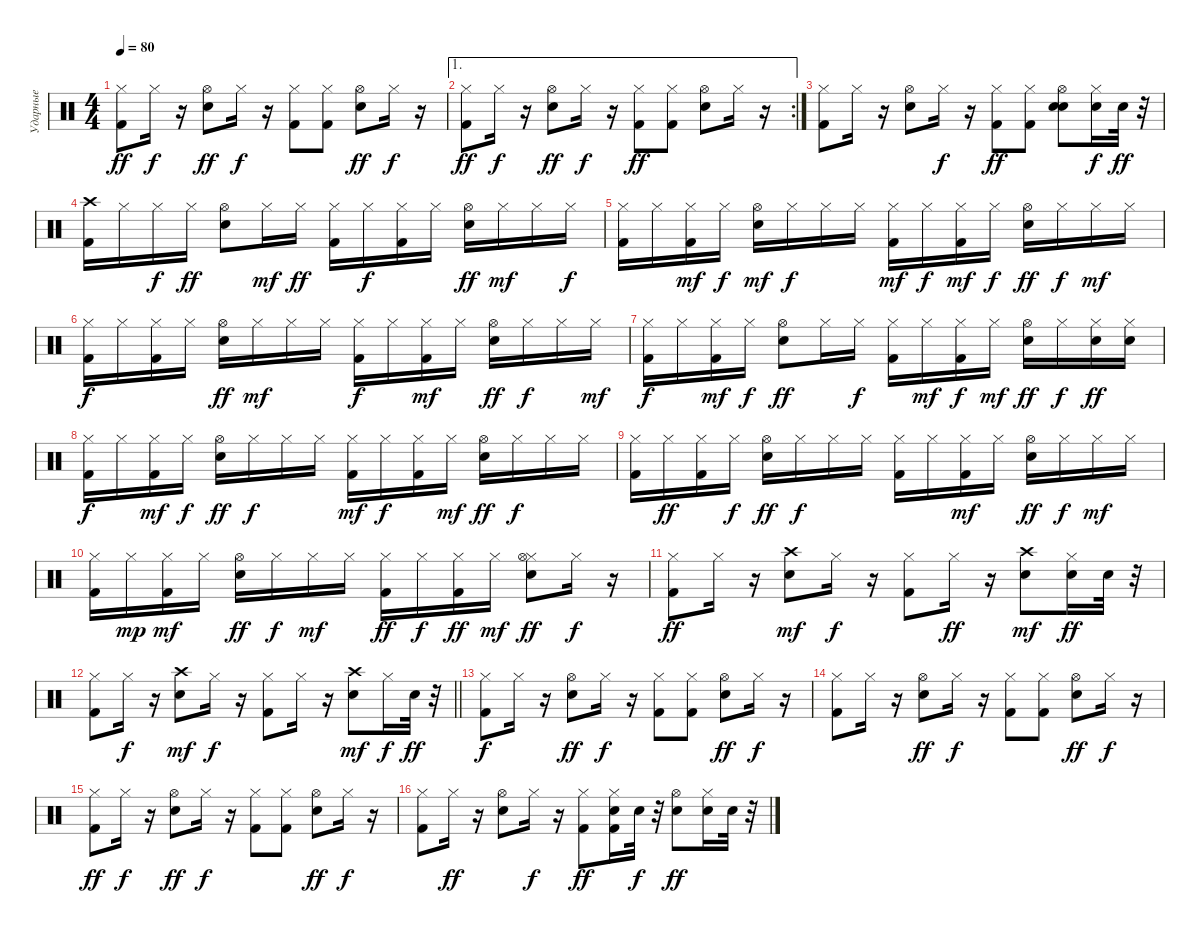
\track ("Ударные" "Ударные") {instrument percussion}
\staff {score}
\articulation defaults
\ts (4 4)
\tempo 80
\clef neutral
\ks c
("Kick (hit) 2" "Hi-Hat (closed)").8{dy ff} "Hi-Hat (closed)".16{dy f} r.16 ("Electric Snare (hit)" "Hi-Hat (open)").8{dy ff} "Hi-Hat (closed)".16{dy f} r.16 ("Kick (hit) 2" "Hi-Hat (closed)").8 ("Kick (hit) 2" "Hi-Hat (closed)").8 ("Electric Snare (hit)" "Hi-Hat (open)").8{dy ff} "Hi-Hat (closed)".16{dy f} r.16 |
\ae 1
\rc 2
("Kick (hit) 2" "Hi-Hat (closed)").8{dy ff} "Hi-Hat (closed)".16{dy f} r.16 ("Electric Snare (hit)" "Hi-Hat (open)").8{dy ff} "Hi-Hat (closed)".16{dy f} r.16 ("Kick (hit) 2" "Hi-Hat (closed)").8{dy ff} ("Kick (hit) 2" "Hi-Hat (closed)").8 ("Electric Snare (hit)" "Hi-Hat (open)").8 "Hi-Hat (closed)".16 r.16 |
("Kick (hit) 2" "Hi-Hat (closed)").8 "Hi-Hat (closed)".16 r.16 ("Electric Snare (hit)" "Hi-Hat (open)").8 "Hi-Hat (closed)".16{dy f} r.16 ("Kick (hit) 2" "Hi-Hat (closed)").8{dy ff} ("Kick (hit) 2" "Hi-Hat (closed)").8 ("Electric Snare (hit)" "Hi-Hat (open)" "Electric Snare (hit)").8 ("Hi-Hat (closed)" "Electric Snare (hit)").16{dy f} "Electric Snare (hit)".32{dy ff} r.32 |
("Kick (hit) 2" "Crash high (hit)").16 "Hi-Hat (closed)".16 "Hi-Hat (closed)".16{dy f} "Hi-Hat (closed)".16{dy ff} ("Electric Snare (hit)" "Hi-Hat (open)").8 "Hi-Hat (closed)".16{dy mf} "Hi-Hat (closed)".16{dy ff} ("Kick (hit) 2" "Hi-Hat (closed)").16 "Hi-Hat (closed)".16{dy f} ("Kick (hit) 2" "Hi-Hat (closed)").16 "Hi-Hat (closed)".16 ("Electric Snare (hit)" "Hi-Hat (open)").16{dy ff} "Hi-Hat (closed)".16{dy mf} "Hi-Hat (closed)".16 "Hi-Hat (closed)".16{dy f} |
("Kick (hit) 2" "Hi-Hat (closed)").16 "Hi-Hat (closed)".16 ("Kick (hit) 2" "Hi-Hat (closed)").16{dy mf} "Hi-Hat (closed)".16{dy f} ("Electric Snare (hit)" "Hi-Hat (open)").16{dy mf} "Hi-Hat (closed)".16{dy f} "Hi-Hat (closed)".16 "Hi-Hat (closed)".16 ("Kick (hit) 2" "Hi-Hat (closed)").16{dy mf} "Hi-Hat (closed)".16{dy f} ("Kick (hit) 2" "Hi-Hat (closed)").16{dy mf} "Hi-Hat (closed)".16{dy f} ("Electric Snare (hit)" "Hi-Hat (open)").16{dy ff} "Hi-Hat (closed)".16{dy f} "Hi-Hat (closed)".16{dy mf} "Hi-Hat (closed)".16 |
("Kick (hit) 2" "Hi-Hat (closed)").16{dy f} "Hi-Hat (closed)".16 ("Kick (hit) 2" "Hi-Hat (closed)").16 "Hi-Hat (closed)".16 ("Electric Snare (hit)" "Hi-Hat (open)").16{dy ff} "Hi-Hat (closed)".16{dy mf} "Hi-Hat (closed)".16 "Hi-Hat (closed)".16 ("Kick (hit) 2" "Hi-Hat (closed)").16{dy f} "Hi-Hat (closed)".16 ("Kick (hit) 2" "Hi-Hat (closed)").16{dy mf} "Hi-Hat (closed)".16 ("Electric Snare (hit)" "Hi-Hat (open)").16{dy ff} "Hi-Hat (closed)".16{dy f} "Hi-Hat (closed)".16 "Hi-Hat (closed)".16{dy mf} |
("Kick (hit) 2" "Hi-Hat (closed)").16{dy f} "Hi-Hat (closed)".16 ("Kick (hit) 2" "Hi-Hat (closed)").16{dy mf} "Hi-Hat (closed)".16{dy f} ("Electric Snare (hit)" "Hi-Hat (open)").8{dy ff} "Hi-Hat (closed)".16 "Hi-Hat (closed)".16{dy f} ("Kick (hit) 2" "Hi-Hat (closed)").16 "Hi-Hat (closed)".16{dy mf} ("Kick (hit) 2" "Hi-Hat (closed)").16{dy f} "Hi-Hat (closed)".16{dy mf} ("Electric Snare (hit)" "Hi-Hat (open)").16{dy ff} "Hi-Hat (closed)".16{dy f} ("Hi-Hat (closed)" "Electric Snare (hit)").16{dy ff} ("Hi-Hat (closed)" "Electric Snare (hit)").16 |
("Kick (hit) 2" "Hi-Hat (closed)").16{dy f} "Hi-Hat (closed)".16 ("Kick (hit) 2" "Hi-Hat (closed)").16{dy mf} "Hi-Hat (closed)".16{dy f} ("Electric Snare (hit)" "Hi-Hat (open)").16{dy ff} "Hi-Hat (closed)".16{dy f} "Hi-Hat (closed)".16 "Hi-Hat (closed)".16 ("Kick (hit) 2" "Hi-Hat (closed)").16{dy mf} "Hi-Hat (closed)".16{dy f} ("Kick (hit) 2" "Hi-Hat (closed)").16 "Hi-Hat (closed)".16{dy mf} ("Electric Snare (hit)" "Hi-Hat (open)").16{dy ff} "Hi-Hat (closed)".16{dy f} "Hi-Hat (closed)".16 "Hi-Hat (closed)".16 |
("Kick (hit) 2" "Hi-Hat (closed)").16 "Hi-Hat (closed)".16{dy ff} ("Kick (hit) 2" "Hi-Hat (closed)").16 "Hi-Hat (closed)".16{dy f} ("Electric Snare (hit)" "Hi-Hat (open)").16{dy ff} "Hi-Hat (closed)".16{dy f} "Hi-Hat (closed)".16 "Hi-Hat (closed)".16 ("Kick (hit) 2" "Hi-Hat (closed)").16 "Hi-Hat (closed)".16 ("Kick (hit) 2" "Hi-Hat (closed)").16{dy mf} "Hi-Hat (closed)".16 ("Electric Snare (hit)" "Hi-Hat (open)").16{dy ff} "Hi-Hat (closed)".16{dy f} "Hi-Hat (closed)".16{dy mf} "Hi-Hat (closed)".16 |
("Kick (hit) 2" "Hi-Hat (closed)").16 "Hi-Hat (closed)".16{dy mp} ("Kick (hit) 2" "Hi-Hat (closed)").16{dy mf} "Hi-Hat (closed)".16 ("Electric Snare (hit)" "Hi-Hat (open)").16{dy ff} "Hi-Hat (closed)".16{dy f} "Hi-Hat (closed)".16{dy mf} "Hi-Hat (closed)".16 ("Kick (hit) 2" "Hi-Hat (closed)").16{dy ff} "Hi-Hat (closed)".16{dy f} ("Kick (hit) 2" "Hi-Hat (closed)").16{dy ff} "Hi-Hat (closed)".16{dy mf} ("Electric Snare (hit)" "Hi-Hat (closed)" "Hi-Hat (open)").8{dy ff} "Hi-Hat (closed)".16{dy f} r.16 |
("Kick (hit) 2" "Hi-Hat (closed)").8{dy ff} "Hi-Hat (closed)".16 r.16 ("Electric Snare (hit)" "Crash high (hit)").8{dy mf} "Hi-Hat (closed)".16{dy f} r.16 ("Kick (hit) 2" "Hi-Hat (closed)").8 "Hi-Hat (closed)".16{dy ff} r.16 ("Electric Snare (hit)" "Crash high (hit)").8{dy mf} ("Hi-Hat (closed)" "Electric Snare (hit)").16{dy ff} "Electric Snare (hit)".32 r.32 |
\barLineRight lightlight
("Kick (hit) 2" "Hi-Hat (closed)").8 "Hi-Hat (closed)".16{dy f} r.16 ("Electric Snare (hit)" "Crash high (hit)").8{dy mf} "Hi-Hat (closed)".16{dy f} r.16 ("Kick (hit) 2" "Hi-Hat (closed)").8 "Hi-Hat (closed)".16 r.16 ("Electric Snare (hit)" "Crash high (hit)").8{dy mf} "Hi-Hat (closed)".16{dy f} "Electric Snare (hit)".32{dy ff} r.32 |
\section ("" "")
("Kick (hit) 2" "Hi-Hat (closed)").8{dy f} "Hi-Hat (closed)".16 r.16 ("Electric Snare (hit)" "Hi-Hat (open)").8{dy ff} "Hi-Hat (closed)".16{dy f} r.16 ("Kick (hit) 2" "Hi-Hat (closed)").8 ("Kick (hit) 2" "Hi-Hat (closed)").8 ("Electric Snare (hit)" "Hi-Hat (open)").8{dy ff} "Hi-Hat (closed)".16{dy f} r.16 |
("Kick (hit) 2" "Hi-Hat (closed)").8 "Hi-Hat (closed)".16 r.16 ("Electric Snare (hit)" "Hi-Hat (open)").8{dy ff} "Hi-Hat (closed)".16{dy f} r.16 ("Kick (hit) 2" "Hi-Hat (closed)").8 ("Kick (hit) 2" "Hi-Hat (closed)").8 ("Electric Snare (hit)" "Hi-Hat (open)").8{dy ff} "Hi-Hat (closed)".16{dy f} r.16 |
("Kick (hit) 2" "Hi-Hat (closed)").8{dy ff} "Hi-Hat (closed)".16{dy f} r.16 ("Electric Snare (hit)" "Hi-Hat (open)").8{dy ff} "Hi-Hat (closed)".16{dy f} r.16 ("Kick (hit) 2" "Hi-Hat (closed)").8 ("Kick (hit) 2" "Hi-Hat (closed)").8 ("Electric Snare (hit)" "Hi-Hat (open)").8{dy ff} "Hi-Hat (closed)".16{dy f} r.16 |
("Kick (hit) 2" "Hi-Hat (closed)").8 "Hi-Hat (closed)".16{dy ff} r.16 ("Electric Snare (hit)" "Hi-Hat (open)").8 "Hi-Hat (closed)".16{dy f} r.16 ("Kick (hit) 2" "Hi-Hat (closed)").8{dy ff} ("Kick (hit) 2" "Hi-Hat (closed)" "Electric Snare (hit)").16 "Electric Snare (hit)".32{dy f} r.32 ("Electric Snare (hit)" "Hi-Hat (open)").8{dy ff} ("Hi-Hat (closed)" "Electric Snare (hit)").16 "Electric Snare (hit)".32 r.32
